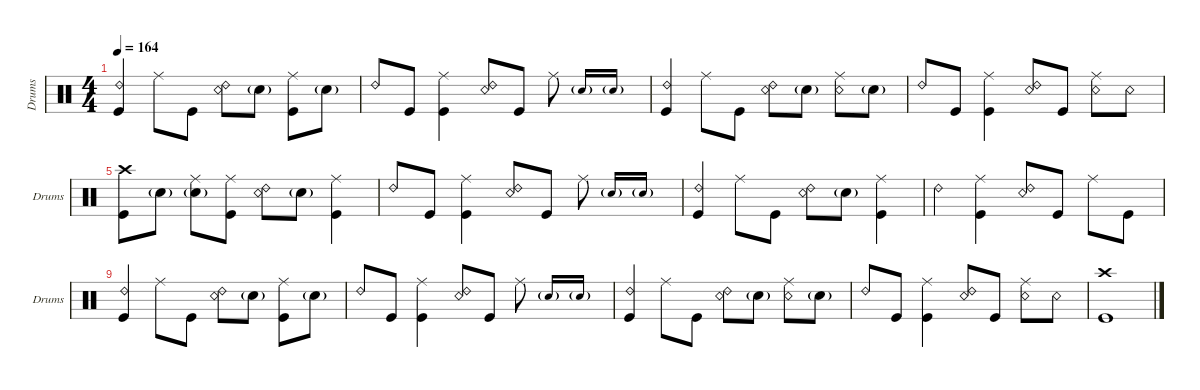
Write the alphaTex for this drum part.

\defaultSystemsLayout 4
\hideDynamics
\bracketExtendMode groupsimilarinstruments
\singleTrackTrackNamePolicy allsystems
\multiTrackTrackNamePolicy allsystems
\otherSystemsTrackNameOrientation horizontal
\defaultBarNumberDisplay FirstOfSystem
\track ("Drumkit" "Drums") {instrument percussion}
\staff {score}
\articulation defaults
\ts (4 4)
\tempo 164
\clef neutral
\ks c
("Kick (hit)" "Ride (bell) 2").4{dy f} "Ride (middle)".8 "Kick (hit)".8 ("Snare (rim shot)" "Ride (bell) 2").8 "Snare (hit) 2"{g}.8 ("Kick (hit)" "Ride (middle)").8 "Snare (hit) 2"{g}.8 |
"Ride (bell) 2".8 "Kick (hit)".8 ("Kick (hit)" "Ride (middle)").4 ("Snare (rim shot)" "Ride (bell) 2").8 "Kick (hit)".8 "Ride (middle)".8 "Snare (hit) 2"{g}.16{gr onbeat} "Snare (hit) 2"{g}.16{gr onbeat} |
("Kick (hit)" "Ride (bell) 2").4 "Ride (middle)".8 "Kick (hit)".8 ("Snare (rim shot)" "Ride (bell) 2").8 "Snare (hit) 2"{g}.8 ("Snare (rim shot)" "Ride (middle)").8 "Snare (hit) 2"{g}.8 |
"Ride (bell) 2".8 "Kick (hit)".8 ("Kick (hit)" "Ride (middle)").4 ("Snare (rim shot)" "Ride (bell) 2").8 "Kick (hit)".8 ("Snare (rim shot)" "Ride (middle)").8 "Snare (rim shot)".8 |
("Crash high (hit)" "Kick (hit)").8 "Snare (hit) 2"{g}.8 ("Snare (hit) 2"{g} "Ride (middle)").8 ("Kick (hit)" "Ride (middle)").8 ("Snare (rim shot)" "Ride (bell) 2").8 "Snare (hit) 2"{g}.8 ("Kick (hit)" "Ride (middle)").4 |
"Ride (bell) 2".8 "Kick (hit)".8 ("Kick (hit)" "Ride (middle)").4 ("Snare (rim shot)" "Ride (bell) 2").8 "Kick (hit)".8 "Ride (middle)".8 "Snare (hit) 2"{g}.16{gr onbeat} "Snare (hit) 2"{g}.16{gr onbeat} |
("Kick (hit)" "Ride (bell) 2").4 "Ride (middle)".8 "Kick (hit)".8 ("Snare (rim shot)" "Ride (bell) 2").8 "Snare (hit) 2"{g}.8 ("Kick (hit)" "Ride (middle)").4 |
"Ride (bell) 2".4 ("Kick (hit)" "Ride (middle)").4 ("Snare (rim shot)" "Ride (bell) 2").8 "Kick (hit)".8 "Ride (middle)".8 "Kick (hit)".8 |
("Kick (hit)" "Ride (bell) 2").4 "Ride (middle)".8 "Kick (hit)".8 ("Snare (rim shot)" "Ride (bell) 2").8 "Snare (hit) 2"{g}.8 ("Kick (hit)" "Ride (middle)").8 "Snare (hit) 2"{g}.8 |
"Ride (bell) 2".8 "Kick (hit)".8 ("Kick (hit)" "Ride (middle)").4 ("Snare (rim shot)" "Ride (bell) 2").8 "Kick (hit)".8 "Ride (middle)".8 "Snare (hit) 2"{g}.16{gr onbeat} "Snare (hit) 2"{g}.16{gr onbeat} |
("Kick (hit)" "Ride (bell) 2").4 "Ride (middle)".8 "Kick (hit)".8 ("Snare (rim shot)" "Ride (bell) 2").8 "Snare (hit) 2"{g}.8 ("Snare (rim shot)" "Ride (middle)").8 "Snare (hit) 2"{g}.8 |
"Ride (bell) 2".8 "Kick (hit)".8 ("Kick (hit)" "Ride (middle)").4 ("Snare (rim shot)" "Ride (bell) 2").8 "Kick (hit)".8 ("Snare (rim shot)" "Ride (middle)").8 "Snare (rim shot)".8 |
("Kick (hit)" "Crash high (hit)").1
